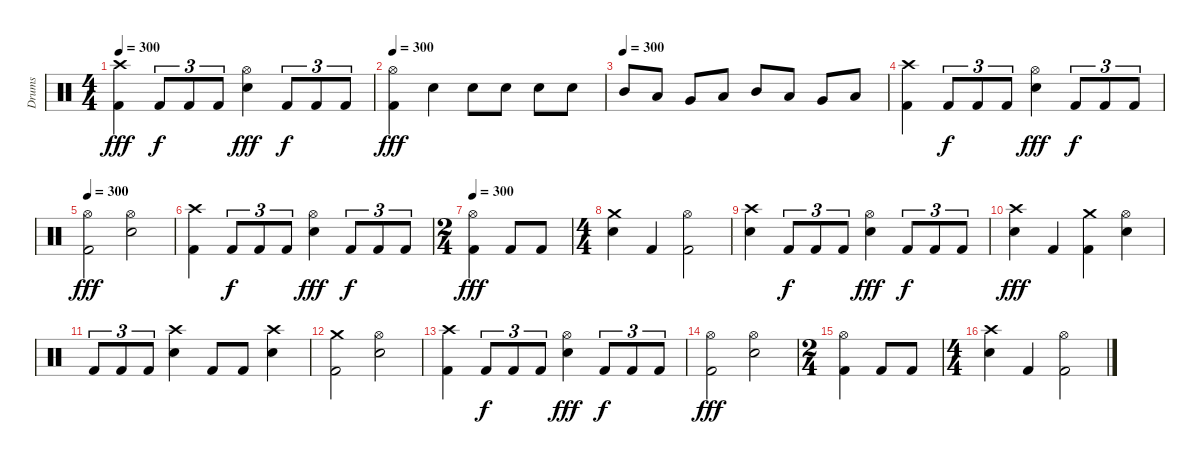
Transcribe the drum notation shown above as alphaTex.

\track ("Drums" "Drums") {instrument percussion}
\staff {score}
\articulation defaults
\ts (4 4)
\tempo 300
\clef neutral
\ks c
("Kick (hit) 2" "Crash high (hit)").4{dy fff} "Kick (hit) 2".8{tu (3 2) dy f} "Kick (hit) 2".8{tu (3 2)} "Kick (hit) 2".8{tu (3 2)} ("Snare (hit) 2" "Hi-Hat (open)").4{dy fff} "Kick (hit) 2".8{tu (3 2) dy f} "Kick (hit) 2".8{tu (3 2)} "Kick (hit) 2".8{tu (3 2)} |
\tempo 300
("Kick (hit) 2" "Hi-Hat (open)").4{dy fff} "Snare (hit) 2".4 "Snare (hit) 2".8 "Snare (hit) 2".8 "Snare (hit) 2".8 "Snare (hit) 2".8 |
\tempo (300)
"Mid Tom (hit)".8 "Low Tom (hit)".8 "Very Low Tom (hit)".8 "Low Floor Tom (hit)".8 "Mid Tom (hit)".8 "Low Tom (hit)".8 "Very Low Tom (hit)".8 "Low Floor Tom (hit)".8 |
("Kick (hit) 2" "Crash high (hit)").4 "Kick (hit) 2".8{tu (3 2) dy f} "Kick (hit) 2".8{tu (3 2)} "Kick (hit) 2".8{tu (3 2)} ("Snare (hit) 2" "Hi-Hat (open)").4{dy fff} "Kick (hit) 2".8{tu (3 2) dy f} "Kick (hit) 2".8{tu (3 2)} "Kick (hit) 2".8{tu (3 2)} |
\tempo 300
("Kick (hit) 2" "Hi-Hat (open)").2{dy fff} ("Snare (hit) 2" "Hi-Hat (open)").2 |
("Kick (hit) 2" "Crash high (hit)").4 "Kick (hit) 2".8{tu (3 2) dy f} "Kick (hit) 2".8{tu (3 2)} "Kick (hit) 2".8{tu (3 2)} ("Snare (hit) 2" "Hi-Hat (open)").4{dy fff} "Kick (hit) 2".8{tu (3 2) dy f} "Kick (hit) 2".8{tu (3 2)} "Kick (hit) 2".8{tu (3 2)} |
\ts (2 4)
\tempo 300
("Kick (hit) 2" "Hi-Hat (open)").4{dy fff} "Kick (hit) 2".8 "Kick (hit) 2".8 |
\ts (4 4)
("Snare (hit) 2" "Crash medium (hit)").4 "Kick (hit) 2".4 ("Kick (hit) 2" "Hi-Hat (open)").2 |
("Snare (hit) 2" "Crash high (hit)").4 "Kick (hit) 2".8{tu (3 2) dy f} "Kick (hit) 2".8{tu (3 2)} "Kick (hit) 2".8{tu (3 2)} ("Snare (hit) 2" "Hi-Hat (open)").4{dy fff} "Kick (hit) 2".8{tu (3 2) dy f} "Kick (hit) 2".8{tu (3 2)} "Kick (hit) 2".8{tu (3 2)} |
("Snare (hit) 2" "Crash high (hit)").4{dy fff} "Kick (hit) 2".4 ("Kick (hit) 2" "Crash medium (hit)").4 ("Snare (hit) 2" "Hi-Hat (open)").4 |
"Kick (hit) 2".8{tu (3 2)} "Kick (hit) 2".8{tu (3 2)} "Kick (hit) 2".8{tu (3 2)} ("Snare (hit) 2" "Crash high (hit)").4 "Kick (hit) 2".8 "Kick (hit) 2".8 ("Snare (hit) 2" "Crash high (hit)").4 |
("Kick (hit) 2" "Crash medium (hit)").2 ("Snare (hit) 2" "Hi-Hat (open)").2 |
("Kick (hit) 2" "Crash high (hit)").4 "Kick (hit) 2".8{tu (3 2) dy f} "Kick (hit) 2".8{tu (3 2)} "Kick (hit) 2".8{tu (3 2)} ("Snare (hit) 2" "Hi-Hat (open)").4{dy fff} "Kick (hit) 2".8{tu (3 2) dy f} "Kick (hit) 2".8{tu (3 2)} "Kick (hit) 2".8{tu (3 2)} |
("Kick (hit) 2" "Hi-Hat (open)").2{dy fff} ("Snare (hit) 2" "Hi-Hat (open)").2 |
\ts (2 4)
("Kick (hit) 2" "Hi-Hat (open)").4 "Kick (hit) 2".8 "Kick (hit) 2".8 |
\ts (4 4)
("Snare (hit) 2" "Crash high (hit)").4 "Kick (hit) 2".4 ("Kick (hit) 2" "Hi-Hat (open)").2
